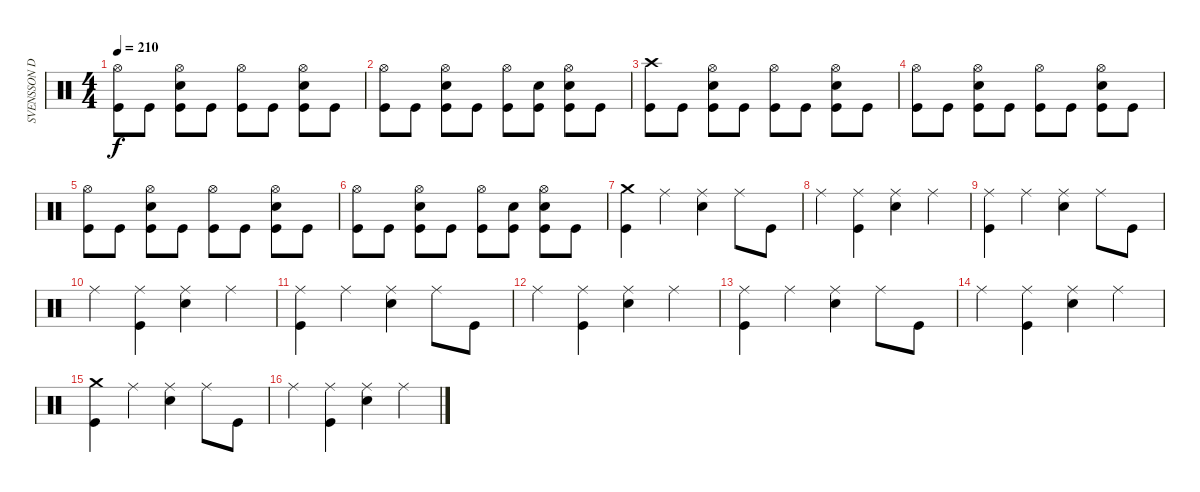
\track ("SVENSSON DRUMS" "SVENSSON D") {instrument percussion}
\staff {score}
\articulation defaults
\ts (4 4)
\tempo 210
\clef neutral
\ks c
("Hi-Hat (open)" "Kick (hit)").8{dy f} "Kick (hit)".8 ("Hi-Hat (open)" "Electric Snare (hit)" "Kick (hit)").8 "Kick (hit)".8 ("Hi-Hat (open)" "Kick (hit)").8 "Kick (hit)".8 ("Hi-Hat (open)" "Electric Snare (hit)" "Kick (hit)").8 "Kick (hit)".8 |
("Hi-Hat (open)" "Kick (hit)").8 "Kick (hit)".8 ("Hi-Hat (open)" "Electric Snare (hit)" "Kick (hit)").8 "Kick (hit)".8 ("Hi-Hat (open)" "Kick (hit)").8 ("Electric Snare (hit)" "Kick (hit)").8 ("Hi-Hat (open)" "Electric Snare (hit)" "Kick (hit)").8 "Kick (hit)".8 |
("Crash high (hit)" "Kick (hit)").8 "Kick (hit)".8 ("Hi-Hat (open)" "Electric Snare (hit)" "Kick (hit)").8 "Kick (hit)".8 ("Hi-Hat (open)" "Kick (hit)").8 "Kick (hit)".8 ("Hi-Hat (open)" "Electric Snare (hit)" "Kick (hit)").8 "Kick (hit)".8 |
("Hi-Hat (open)" "Kick (hit)").8 "Kick (hit)".8 ("Hi-Hat (open)" "Electric Snare (hit)" "Kick (hit)").8 "Kick (hit)".8 ("Hi-Hat (open)" "Kick (hit)").8 "Kick (hit)".8 ("Hi-Hat (open)" "Electric Snare (hit)" "Kick (hit)").8 "Kick (hit)".8 |
("Hi-Hat (open)" "Kick (hit)").8 "Kick (hit)".8 ("Hi-Hat (open)" "Electric Snare (hit)" "Kick (hit)").8 "Kick (hit)".8 ("Hi-Hat (open)" "Kick (hit)").8 "Kick (hit)".8 ("Hi-Hat (open)" "Electric Snare (hit)" "Kick (hit)").8 "Kick (hit)".8 |
("Hi-Hat (open)" "Kick (hit)").8 "Kick (hit)".8 ("Hi-Hat (open)" "Electric Snare (hit)" "Kick (hit)").8 "Kick (hit)".8 ("Hi-Hat (open)" "Kick (hit)").8 ("Electric Snare (hit)" "Kick (hit)").8 ("Hi-Hat (open)" "Electric Snare (hit)" "Kick (hit)").8 "Kick (hit)".8 |
("Crash medium (hit)" "Kick (hit)").4 "Ride (middle)".4 ("Ride (middle)" "Electric Snare (hit)").4 "Ride (middle)".8 "Kick (hit)".8 |
"Ride (middle)".4 ("Ride (middle)" "Kick (hit)").4 ("Ride (middle)" "Electric Snare (hit)").4 "Ride (middle)".4 |
("Ride (middle)" "Kick (hit)").4 "Ride (middle)".4 ("Ride (middle)" "Electric Snare (hit)").4 "Ride (middle)".8 "Kick (hit)".8 |
"Ride (middle)".4 ("Ride (middle)" "Kick (hit)").4 ("Ride (middle)" "Electric Snare (hit)").4 "Ride (middle)".4 |
("Ride (middle)" "Kick (hit)").4 "Ride (middle)".4 ("Ride (middle)" "Electric Snare (hit)").4 "Ride (middle)".8 "Kick (hit)".8 |
"Ride (middle)".4 ("Ride (middle)" "Kick (hit)").4 ("Ride (middle)" "Electric Snare (hit)").4 "Ride (middle)".4 |
("Ride (middle)" "Kick (hit)").4 "Ride (middle)".4 ("Ride (middle)" "Electric Snare (hit)").4 "Ride (middle)".8 "Kick (hit)".8 |
"Ride (middle)".4 ("Ride (middle)" "Kick (hit)").4 ("Ride (middle)" "Electric Snare (hit)").4 "Ride (middle)".4 |
("Crash medium (hit)" "Kick (hit)").4 "Ride (middle)".4 ("Ride (middle)" "Electric Snare (hit)").4 "Ride (middle)".8 "Kick (hit)".8 |
"Ride (middle)".4 ("Ride (middle)" "Kick (hit)").4 ("Ride (middle)" "Electric Snare (hit)").4 "Ride (middle)".4
